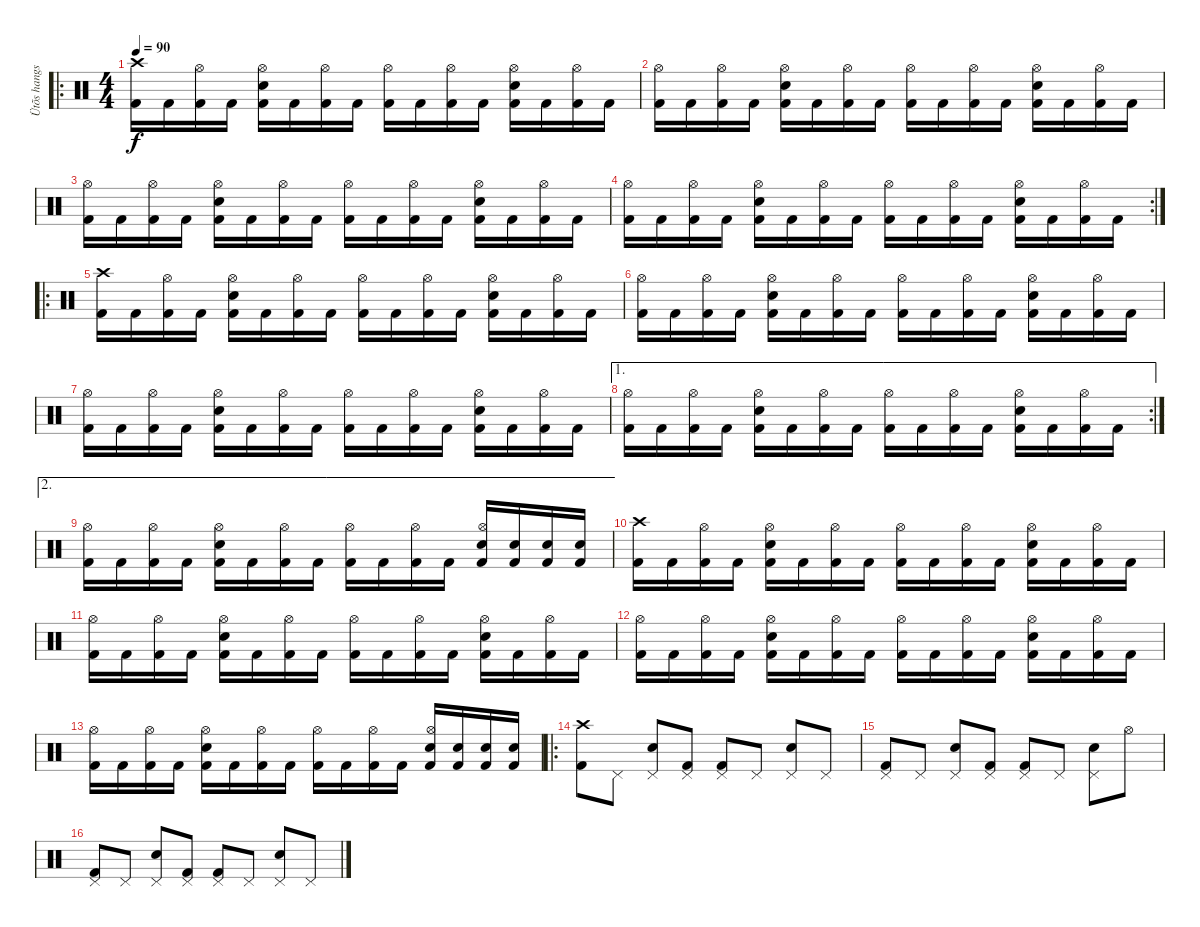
\track ("Ütõs hangszer" "Ütõs hangs") {instrument percussion}
\staff {score}
\articulation defaults
\ro
\ts (4 4)
\tempo 90
\clef neutral
\ks c
("Crash high (hit)" "Kick (hit) 2").16{dy f} "Kick (hit) 2".16 ("Hi-Hat (open)" "Kick (hit) 2").16 "Kick (hit) 2".16 ("Hi-Hat (open)" "Electric Snare (hit)" "Kick (hit) 2").16 "Kick (hit) 2".16 ("Hi-Hat (open)" "Kick (hit) 2").16 "Kick (hit) 2".16 ("Hi-Hat (open)" "Kick (hit) 2").16 "Kick (hit) 2".16 ("Hi-Hat (open)" "Kick (hit) 2").16 "Kick (hit) 2".16 ("Hi-Hat (open)" "Electric Snare (hit)" "Kick (hit) 2").16 "Kick (hit) 2".16 ("Hi-Hat (open)" "Kick (hit) 2").16 "Kick (hit) 2".16 |
("Hi-Hat (open)" "Kick (hit) 2").16 "Kick (hit) 2".16 ("Hi-Hat (open)" "Kick (hit) 2").16 "Kick (hit) 2".16 ("Hi-Hat (open)" "Electric Snare (hit)" "Kick (hit) 2").16 "Kick (hit) 2".16 ("Hi-Hat (open)" "Kick (hit) 2").16 "Kick (hit) 2".16 ("Hi-Hat (open)" "Kick (hit) 2").16 "Kick (hit) 2".16 ("Hi-Hat (open)" "Kick (hit) 2").16 "Kick (hit) 2".16 ("Hi-Hat (open)" "Electric Snare (hit)" "Kick (hit) 2").16 "Kick (hit) 2".16 ("Hi-Hat (open)" "Kick (hit) 2").16 "Kick (hit) 2".16 |
("Hi-Hat (open)" "Kick (hit) 2").16 "Kick (hit) 2".16 ("Hi-Hat (open)" "Kick (hit) 2").16 "Kick (hit) 2".16 ("Hi-Hat (open)" "Electric Snare (hit)" "Kick (hit) 2").16 "Kick (hit) 2".16 ("Hi-Hat (open)" "Kick (hit) 2").16 "Kick (hit) 2".16 ("Hi-Hat (open)" "Kick (hit) 2").16 "Kick (hit) 2".16 ("Hi-Hat (open)" "Kick (hit) 2").16 "Kick (hit) 2".16 ("Hi-Hat (open)" "Electric Snare (hit)" "Kick (hit) 2").16 "Kick (hit) 2".16 ("Hi-Hat (open)" "Kick (hit) 2").16 "Kick (hit) 2".16 |
\rc 2
("Hi-Hat (open)" "Kick (hit) 2").16 "Kick (hit) 2".16 ("Hi-Hat (open)" "Kick (hit) 2").16 "Kick (hit) 2".16 ("Hi-Hat (open)" "Electric Snare (hit)" "Kick (hit) 2").16 "Kick (hit) 2".16 ("Hi-Hat (open)" "Kick (hit) 2").16 "Kick (hit) 2".16 ("Hi-Hat (open)" "Kick (hit) 2").16 "Kick (hit) 2".16 ("Hi-Hat (open)" "Kick (hit) 2").16 "Kick (hit) 2".16 ("Hi-Hat (open)" "Electric Snare (hit)" "Kick (hit) 2").16 "Kick (hit) 2".16 ("Hi-Hat (open)" "Kick (hit) 2").16 "Kick (hit) 2".16 |
\ro
("Crash high (hit)" "Kick (hit) 2").16 "Kick (hit) 2".16 ("Hi-Hat (open)" "Kick (hit) 2").16 "Kick (hit) 2".16 ("Hi-Hat (open)" "Electric Snare (hit)" "Kick (hit) 2").16 "Kick (hit) 2".16 ("Hi-Hat (open)" "Kick (hit) 2").16 "Kick (hit) 2".16 ("Hi-Hat (open)" "Kick (hit) 2").16 "Kick (hit) 2".16 ("Hi-Hat (open)" "Kick (hit) 2").16 "Kick (hit) 2".16 ("Hi-Hat (open)" "Electric Snare (hit)" "Kick (hit) 2").16 "Kick (hit) 2".16 ("Hi-Hat (open)" "Kick (hit) 2").16 "Kick (hit) 2".16 |
("Hi-Hat (open)" "Kick (hit) 2").16 "Kick (hit) 2".16 ("Hi-Hat (open)" "Kick (hit) 2").16 "Kick (hit) 2".16 ("Hi-Hat (open)" "Electric Snare (hit)" "Kick (hit) 2").16 "Kick (hit) 2".16 ("Hi-Hat (open)" "Kick (hit) 2").16 "Kick (hit) 2".16 ("Hi-Hat (open)" "Kick (hit) 2").16 "Kick (hit) 2".16 ("Hi-Hat (open)" "Kick (hit) 2").16 "Kick (hit) 2".16 ("Hi-Hat (open)" "Electric Snare (hit)" "Kick (hit) 2").16 "Kick (hit) 2".16 ("Hi-Hat (open)" "Kick (hit) 2").16 "Kick (hit) 2".16 |
("Hi-Hat (open)" "Kick (hit) 2").16 "Kick (hit) 2".16 ("Hi-Hat (open)" "Kick (hit) 2").16 "Kick (hit) 2".16 ("Hi-Hat (open)" "Electric Snare (hit)" "Kick (hit) 2").16 "Kick (hit) 2".16 ("Hi-Hat (open)" "Kick (hit) 2").16 "Kick (hit) 2".16 ("Hi-Hat (open)" "Kick (hit) 2").16 "Kick (hit) 2".16 ("Hi-Hat (open)" "Kick (hit) 2").16 "Kick (hit) 2".16 ("Hi-Hat (open)" "Electric Snare (hit)" "Kick (hit) 2").16 "Kick (hit) 2".16 ("Hi-Hat (open)" "Kick (hit) 2").16 "Kick (hit) 2".16 |
\ae 1
\rc 2
("Hi-Hat (open)" "Kick (hit) 2").16 "Kick (hit) 2".16 ("Hi-Hat (open)" "Kick (hit) 2").16 "Kick (hit) 2".16 ("Hi-Hat (open)" "Electric Snare (hit)" "Kick (hit) 2").16 "Kick (hit) 2".16 ("Hi-Hat (open)" "Kick (hit) 2").16 "Kick (hit) 2".16 ("Hi-Hat (open)" "Kick (hit) 2").16 "Kick (hit) 2".16 ("Hi-Hat (open)" "Kick (hit) 2").16 "Kick (hit) 2".16 ("Hi-Hat (open)" "Electric Snare (hit)" "Kick (hit) 2").16 "Kick (hit) 2".16 ("Hi-Hat (open)" "Kick (hit) 2").16 "Kick (hit) 2".16 |
\ae 2
("Hi-Hat (open)" "Kick (hit) 2").16 "Kick (hit) 2".16 ("Hi-Hat (open)" "Kick (hit) 2").16 "Kick (hit) 2".16 ("Hi-Hat (open)" "Electric Snare (hit)" "Kick (hit) 2").16 "Kick (hit) 2".16 ("Hi-Hat (open)" "Kick (hit) 2").16 "Kick (hit) 2".16 ("Hi-Hat (open)" "Kick (hit) 2").16 "Kick (hit) 2".16 ("Hi-Hat (open)" "Kick (hit) 2").16 "Kick (hit) 2".16 ("Hi-Hat (open)" "Electric Snare (hit)" "Kick (hit) 2").16 ("Electric Snare (hit)" "Kick (hit) 2").16 ("Electric Snare (hit)" "Kick (hit) 2").16 ("Electric Snare (hit)" "Kick (hit) 2").16 |
("Crash high (hit)" "Kick (hit) 2").16 "Kick (hit) 2".16 ("Hi-Hat (open)" "Kick (hit) 2").16 "Kick (hit) 2".16 ("Hi-Hat (open)" "Electric Snare (hit)" "Kick (hit) 2").16 "Kick (hit) 2".16 ("Hi-Hat (open)" "Kick (hit) 2").16 "Kick (hit) 2".16 ("Hi-Hat (open)" "Kick (hit) 2").16 "Kick (hit) 2".16 ("Hi-Hat (open)" "Kick (hit) 2").16 "Kick (hit) 2".16 ("Hi-Hat (open)" "Electric Snare (hit)" "Kick (hit) 2").16 "Kick (hit) 2".16 ("Hi-Hat (open)" "Kick (hit) 2").16 "Kick (hit) 2".16 |
("Hi-Hat (open)" "Kick (hit) 2").16 "Kick (hit) 2".16 ("Hi-Hat (open)" "Kick (hit) 2").16 "Kick (hit) 2".16 ("Hi-Hat (open)" "Electric Snare (hit)" "Kick (hit) 2").16 "Kick (hit) 2".16 ("Hi-Hat (open)" "Kick (hit) 2").16 "Kick (hit) 2".16 ("Hi-Hat (open)" "Kick (hit) 2").16 "Kick (hit) 2".16 ("Hi-Hat (open)" "Kick (hit) 2").16 "Kick (hit) 2".16 ("Hi-Hat (open)" "Electric Snare (hit)" "Kick (hit) 2").16 "Kick (hit) 2".16 ("Hi-Hat (open)" "Kick (hit) 2").16 "Kick (hit) 2".16 |
("Hi-Hat (open)" "Kick (hit) 2").16 "Kick (hit) 2".16 ("Hi-Hat (open)" "Kick (hit) 2").16 "Kick (hit) 2".16 ("Hi-Hat (open)" "Electric Snare (hit)" "Kick (hit) 2").16 "Kick (hit) 2".16 ("Hi-Hat (open)" "Kick (hit) 2").16 "Kick (hit) 2".16 ("Hi-Hat (open)" "Kick (hit) 2").16 "Kick (hit) 2".16 ("Hi-Hat (open)" "Kick (hit) 2").16 "Kick (hit) 2".16 ("Hi-Hat (open)" "Electric Snare (hit)" "Kick (hit) 2").16 "Kick (hit) 2".16 ("Hi-Hat (open)" "Kick (hit) 2").16 "Kick (hit) 2".16 |
("Hi-Hat (open)" "Kick (hit) 2").16 "Kick (hit) 2".16 ("Hi-Hat (open)" "Kick (hit) 2").16 "Kick (hit) 2".16 ("Hi-Hat (open)" "Electric Snare (hit)" "Kick (hit) 2").16 "Kick (hit) 2".16 ("Hi-Hat (open)" "Kick (hit) 2").16 "Kick (hit) 2".16 ("Hi-Hat (open)" "Kick (hit) 2").16 "Kick (hit) 2".16 ("Hi-Hat (open)" "Kick (hit) 2").16 "Kick (hit) 2".16 ("Hi-Hat (open)" "Electric Snare (hit)" "Kick (hit) 2").16 ("Electric Snare (hit)" "Kick (hit) 2").16 ("Electric Snare (hit)" "Kick (hit) 2").16 ("Electric Snare (hit)" "Kick (hit) 2").16 |
\ro
("Crash high (hit)" "Kick (hit) 2").8 "Pedal Hi-Hat (hit)".8 ("Pedal Hi-Hat (hit)" "Electric Snare (hit)").8 ("Pedal Hi-Hat (hit)" "Kick (hit) 2").8 ("Pedal Hi-Hat (hit)" "Kick (hit) 2").8 "Pedal Hi-Hat (hit)".8 ("Pedal Hi-Hat (hit)" "Electric Snare (hit)").8 "Pedal Hi-Hat (hit)".8 |
("Pedal Hi-Hat (hit)" "Kick (hit) 2").8 "Pedal Hi-Hat (hit)".8 ("Pedal Hi-Hat (hit)" "Electric Snare (hit)").8 ("Pedal Hi-Hat (hit)" "Kick (hit) 2").8 ("Pedal Hi-Hat (hit)" "Kick (hit) 2").8 "Pedal Hi-Hat (hit)".8 ("Pedal Hi-Hat (hit)" "Electric Snare (hit)").8 "Hi-Hat (open)".8 |
("Pedal Hi-Hat (hit)" "Kick (hit) 2").8 "Pedal Hi-Hat (hit)".8 ("Pedal Hi-Hat (hit)" "Electric Snare (hit)").8 ("Pedal Hi-Hat (hit)" "Kick (hit) 2").8 ("Pedal Hi-Hat (hit)" "Kick (hit) 2").8 "Pedal Hi-Hat (hit)".8 ("Pedal Hi-Hat (hit)" "Electric Snare (hit)").8 "Pedal Hi-Hat (hit)".8
